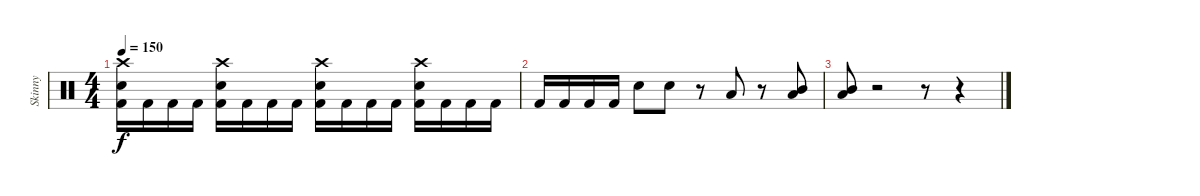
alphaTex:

\track ("Skinny" "Skinny") {instrument percussion}
\staff {score}
\articulation defaults
\ts (4 4)
\tempo 150
\clef neutral
\ks c
("Crash high (hit)" "Electric Snare (hit)" "Kick (hit) 2").16{dy f} "Kick (hit) 2".16 "Kick (hit) 2".16 "Kick (hit) 2".16 ("Crash high (hit)" "Electric Snare (hit)" "Kick (hit) 2").16 "Kick (hit) 2".16 "Kick (hit) 2".16 "Kick (hit) 2".16 ("Crash high (hit)" "Electric Snare (hit)" "Kick (hit) 2").16 "Kick (hit) 2".16 "Kick (hit) 2".16 "Kick (hit) 2".16 ("Crash high (hit)" "Electric Snare (hit)" "Kick (hit) 2").16 "Kick (hit) 2".16 "Kick (hit) 2".16 "Kick (hit) 2".16 |
"Kick (hit) 2".16 "Kick (hit) 2".16 "Kick (hit) 2".16 "Kick (hit) 2".16 "Electric Snare (hit)".8 "Electric Snare (hit)".8 r.8 "Low Tom (hit)".8 r.8 ("Mid Tom (hit)" "Low Floor Tom (hit)").8 |
("Mid Tom (hit)" "Low Floor Tom (hit)").8 r.2 r.8 r.4
